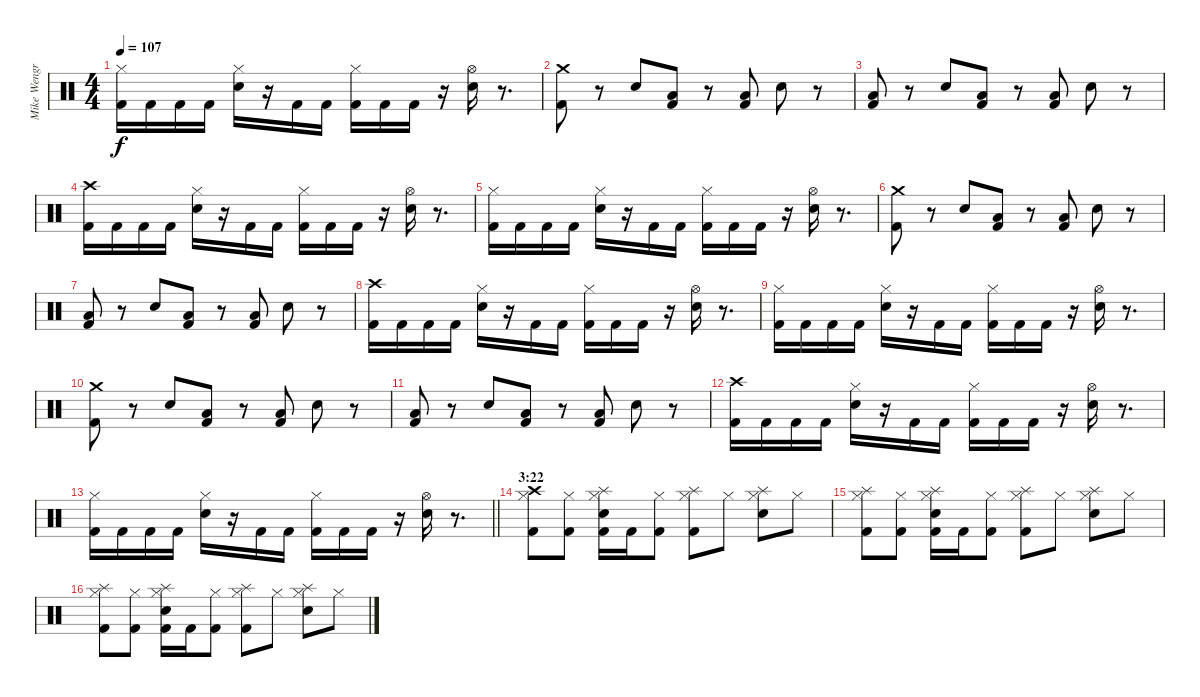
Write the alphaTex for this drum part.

\track ("Mike Wengren" "Mike Wengr") {instrument percussion}
\staff {score}
\articulation defaults
\ts (4 4)
\tempo 107
\clef neutral
\ks c
("Hi-Hat (closed)" "Kick (hit) 2").16{dy f} "Kick (hit) 2".16 "Kick (hit) 2".16 "Kick (hit) 2".16 ("Hi-Hat (closed)" "Electric Snare (hit)").16 r.16 "Kick (hit) 2".16 "Kick (hit) 2".16 ("Hi-Hat (closed)" "Kick (hit) 2").16 "Kick (hit) 2".16 "Kick (hit) 2".16 r.16 ("Hi-Hat (open)" "Electric Snare (hit)").16 r.8{d} |
("Crash medium (hit)" "Kick (hit) 2").8 r.8 "Electric Snare (hit)".8 ("Low Floor Tom (hit)" "Kick (hit) 2").8 r.8 ("Low Floor Tom (hit)" "Kick (hit) 2").8 "Electric Snare (hit)".8 r.8 |
("Low Floor Tom (hit)" "Kick (hit) 2").8 r.8 "Electric Snare (hit)".8 ("Low Floor Tom (hit)" "Kick (hit) 2").8 r.8 ("Low Floor Tom (hit)" "Kick (hit) 2").8 "Electric Snare (hit)".8 r.8 |
("Crash high (hit)" "Kick (hit) 2").16 "Kick (hit) 2".16 "Kick (hit) 2".16 "Kick (hit) 2".16 ("Hi-Hat (closed)" "Electric Snare (hit)").16 r.16 "Kick (hit) 2".16 "Kick (hit) 2".16 ("Hi-Hat (closed)" "Kick (hit) 2").16 "Kick (hit) 2".16 "Kick (hit) 2".16 r.16 ("Hi-Hat (open)" "Electric Snare (hit)").16 r.8{d} |
("Hi-Hat (closed)" "Kick (hit) 2").16 "Kick (hit) 2".16 "Kick (hit) 2".16 "Kick (hit) 2".16 ("Hi-Hat (closed)" "Electric Snare (hit)").16 r.16 "Kick (hit) 2".16 "Kick (hit) 2".16 ("Hi-Hat (closed)" "Kick (hit) 2").16 "Kick (hit) 2".16 "Kick (hit) 2".16 r.16 ("Hi-Hat (open)" "Electric Snare (hit)").16 r.8{d} |
("Crash medium (hit)" "Kick (hit) 2").8 r.8 "Electric Snare (hit)".8 ("Low Floor Tom (hit)" "Kick (hit) 2").8 r.8 ("Low Floor Tom (hit)" "Kick (hit) 2").8 "Electric Snare (hit)".8 r.8 |
("Low Floor Tom (hit)" "Kick (hit) 2").8 r.8 "Electric Snare (hit)".8 ("Low Floor Tom (hit)" "Kick (hit) 2").8 r.8 ("Low Floor Tom (hit)" "Kick (hit) 2").8 "Electric Snare (hit)".8 r.8 |
("Crash high (hit)" "Kick (hit) 2").16 "Kick (hit) 2".16 "Kick (hit) 2".16 "Kick (hit) 2".16 ("Hi-Hat (closed)" "Electric Snare (hit)").16 r.16 "Kick (hit) 2".16 "Kick (hit) 2".16 ("Hi-Hat (closed)" "Kick (hit) 2").16 "Kick (hit) 2".16 "Kick (hit) 2".16 r.16 ("Hi-Hat (open)" "Electric Snare (hit)").16 r.8{d} |
("Hi-Hat (closed)" "Kick (hit) 2").16 "Kick (hit) 2".16 "Kick (hit) 2".16 "Kick (hit) 2".16 ("Hi-Hat (closed)" "Electric Snare (hit)").16 r.16 "Kick (hit) 2".16 "Kick (hit) 2".16 ("Hi-Hat (closed)" "Kick (hit) 2").16 "Kick (hit) 2".16 "Kick (hit) 2".16 r.16 ("Hi-Hat (open)" "Electric Snare (hit)").16 r.8{d} |
("Crash medium (hit)" "Kick (hit) 2").8 r.8 "Electric Snare (hit)".8 ("Low Floor Tom (hit)" "Kick (hit) 2").8 r.8 ("Low Floor Tom (hit)" "Kick (hit) 2").8 "Electric Snare (hit)".8 r.8 |
("Low Floor Tom (hit)" "Kick (hit) 2").8 r.8 "Electric Snare (hit)".8 ("Low Floor Tom (hit)" "Kick (hit) 2").8 r.8 ("Low Floor Tom (hit)" "Kick (hit) 2").8 "Electric Snare (hit)".8 r.8 |
("Crash high (hit)" "Kick (hit) 2").16 "Kick (hit) 2".16 "Kick (hit) 2".16 "Kick (hit) 2".16 ("Hi-Hat (closed)" "Electric Snare (hit)").16 r.16 "Kick (hit) 2".16 "Kick (hit) 2".16 ("Hi-Hat (closed)" "Kick (hit) 2").16 "Kick (hit) 2".16 "Kick (hit) 2".16 r.16 ("Hi-Hat (open)" "Electric Snare (hit)").16 r.8{d} |
\barLineRight lightlight
("Hi-Hat (closed)" "Kick (hit) 2").16 "Kick (hit) 2".16 "Kick (hit) 2".16 "Kick (hit) 2".16 ("Hi-Hat (closed)" "Electric Snare (hit)").16 r.16 "Kick (hit) 2".16 "Kick (hit) 2".16 ("Hi-Hat (closed)" "Kick (hit) 2").16 "Kick (hit) 2".16 "Kick (hit) 2".16 r.16 ("Hi-Hat (open)" "Electric Snare (hit)").16 r.8{d} |
\section ("" "3:22")
("Crash high (hit)" "Hi-Hat (closed)" "Kick (hit) 2").8 ("Hi-Hat (closed)" "Kick (hit) 2").8 ("Splash (hit)" "Hi-Hat (closed)" "Electric Snare (hit)" "Kick (hit) 2").16 "Kick (hit) 2".16 ("Hi-Hat (closed)" "Kick (hit) 2").8 ("Splash (hit)" "Hi-Hat (closed)" "Kick (hit) 2").8 "Hi-Hat (closed)".8 ("Splash (hit)" "Hi-Hat (closed)" "Electric Snare (hit)").8 "Hi-Hat (closed)".8 |
("Splash (hit)" "Hi-Hat (closed)" "Kick (hit) 2").8 ("Hi-Hat (closed)" "Kick (hit) 2").8 ("Splash (hit)" "Hi-Hat (closed)" "Electric Snare (hit)" "Kick (hit) 2").16 "Kick (hit) 2".16 ("Hi-Hat (closed)" "Kick (hit) 2").8 ("Splash (hit)" "Hi-Hat (closed)" "Kick (hit) 2").8 "Hi-Hat (closed)".8 ("Splash (hit)" "Hi-Hat (closed)" "Electric Snare (hit)").8 "Hi-Hat (closed)".8 |
("Splash (hit)" "Hi-Hat (closed)" "Kick (hit) 2").8 ("Hi-Hat (closed)" "Kick (hit) 2").8 ("Splash (hit)" "Hi-Hat (closed)" "Electric Snare (hit)" "Kick (hit) 2").16 "Kick (hit) 2".16 ("Hi-Hat (closed)" "Kick (hit) 2").8 ("Splash (hit)" "Hi-Hat (closed)" "Kick (hit) 2").8 "Hi-Hat (closed)".8 ("Splash (hit)" "Hi-Hat (closed)" "Electric Snare (hit)").8 "Hi-Hat (closed)".8
